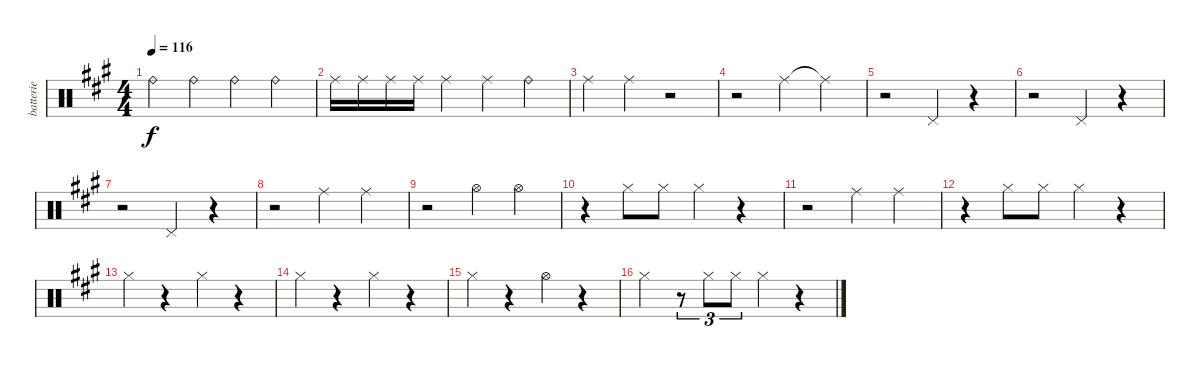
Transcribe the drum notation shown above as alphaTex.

\track ("batterie" "batterie") {instrument percussion}
\staff {score}
\articulation defaults
\ts (4 4)
\tempo 116
\clef neutral
\ks a "Ride (bell)".4{dy f} "Ride (bell)".4 "Ride (bell)".4 "Ride (bell)".4
|
"Ride (middle)".16 "Ride (middle)".16 "Ride (middle)".16 "Ride (middle)".16 "Ride (middle)".4 "Ride (middle)".4 "Ride (bell)".4 |
"Ride (middle)".4 "Ride (middle)".4 r.2 |
r.2 "Ride (middle)".4 "Ride (middle)"{t}.4 |
r.2 "Pedal Hi-Hat (hit)".4 r.4 |
r.2 "Pedal Hi-Hat (hit)".4 r.4 |
r.2 "Pedal Hi-Hat (hit)".4 r.4 |
r.2 "Ride (middle)".4 "Ride (middle)".4 |
r.2 "Hi-Hat (open)".4 "Hi-Hat (open)".4 |
r.4 "Hi-Hat (closed)".8 "Hi-Hat (closed)".8 "Hi-Hat (closed)".4 r.4 |
r.2 "Ride (middle)".4 "Ride (middle)".4 |
r.4 "Hi-Hat (closed)".8 "Hi-Hat (closed)".8 "Hi-Hat (closed)".4 r.4 |
"Hi-Hat (closed)".4 r.4 "Hi-Hat (closed)".4 r.4 |
"Hi-Hat (closed)".4 r.4 "Hi-Hat (closed)".4 r.4 |
"Hi-Hat (closed)".4 r.4 "Hi-Hat (open)".4 r.4 |
"Hi-Hat (closed)".4 r.8{tu (3 2)} "Hi-Hat (closed)".8{tu (3 2)} "Hi-Hat (closed)".8{tu (3 2)} "Hi-Hat (closed)".4 r.4
